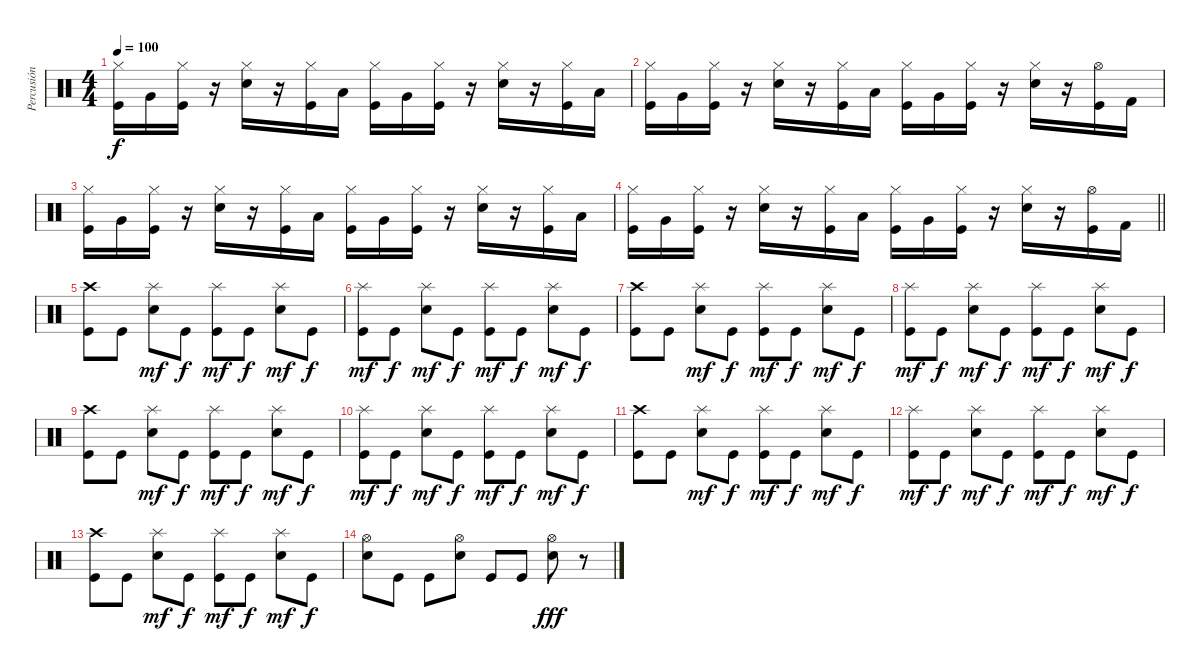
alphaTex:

\track ("Percusión" "Percusión") {instrument percussion}
\staff {score}
\articulation defaults
\ts (4 4)
\tempo 100
\clef neutral
\ks c
("Hi-Hat (closed)" "Kick (hit)").16{dy f} "Very Low Tom (hit)".16 ("Hi-Hat (closed)" "Kick (hit)").16 r.16 ("Hi-Hat (closed)" "Electric Snare (hit)").16 r.16 ("Hi-Hat (closed)" "Kick (hit)").16 "Low Tom (hit)".16 ("Hi-Hat (closed)" "Kick (hit)").16 "Very Low Tom (hit)".16 ("Hi-Hat (closed)" "Kick (hit)").16 r.16 ("Hi-Hat (closed)" "Electric Snare (hit)").16 r.16 ("Hi-Hat (closed)" "Kick (hit)").16 "Low Tom (hit)".16 |
("Hi-Hat (closed)" "Kick (hit)").16 "Very Low Tom (hit)".16 ("Hi-Hat (closed)" "Kick (hit)").16 r.16 ("Hi-Hat (closed)" "Electric Snare (hit)").16 r.16 ("Hi-Hat (closed)" "Kick (hit)").16 "Low Tom (hit)".16 ("Hi-Hat (closed)" "Kick (hit)").16 "Very Low Tom (hit)".16 ("Hi-Hat (closed)" "Kick (hit)").16 r.16 ("Hi-Hat (closed)" "Electric Snare (hit)").16 r.16 ("Hi-Hat (open)" "Kick (hit)").16 "Kick (hit) 2".16 |
("Hi-Hat (closed)" "Kick (hit)").16 "Very Low Tom (hit)".16 ("Hi-Hat (closed)" "Kick (hit)").16 r.16 ("Hi-Hat (closed)" "Electric Snare (hit)").16 r.16 ("Hi-Hat (closed)" "Kick (hit)").16 "Low Tom (hit)".16 ("Hi-Hat (closed)" "Kick (hit)").16 "Very Low Tom (hit)".16 ("Hi-Hat (closed)" "Kick (hit)").16 r.16 ("Hi-Hat (closed)" "Electric Snare (hit)").16 r.16 ("Hi-Hat (closed)" "Kick (hit)").16 "Low Tom (hit)".16 |
\barLineRight lightlight
("Hi-Hat (closed)" "Kick (hit)").16 "Very Low Tom (hit)".16 ("Hi-Hat (closed)" "Kick (hit)").16 r.16 ("Hi-Hat (closed)" "Electric Snare (hit)").16 r.16 ("Hi-Hat (closed)" "Kick (hit)").16 "Low Tom (hit)".16 ("Hi-Hat (closed)" "Kick (hit)").16 "Very Low Tom (hit)".16 ("Hi-Hat (closed)" "Kick (hit)").16 r.16 ("Hi-Hat (closed)" "Electric Snare (hit)").16 r.16 ("Hi-Hat (open)" "Kick (hit)").16 "Kick (hit) 2".16 |
("Crash high (hit)" "Kick (hit)").8 "Kick (hit)".8 ("Splash (hit)" "Electric Snare (hit)").8{dy mf} "Kick (hit)".8{dy f} ("Splash (hit)" "Kick (hit)").8{dy mf} "Kick (hit)".8{dy f} ("Splash (hit)" "Electric Snare (hit)").8{dy mf} "Kick (hit)".8{dy f} |
("Splash (hit)" "Kick (hit)").8{dy mf} "Kick (hit)".8{dy f} ("Splash (hit)" "Electric Snare (hit)").8{dy mf} "Kick (hit)".8{dy f} ("Splash (hit)" "Kick (hit)").8{dy mf} "Kick (hit)".8{dy f} ("Splash (hit)" "Electric Snare (hit)").8{dy mf} "Kick (hit)".8{dy f} |
("Crash high (hit)" "Kick (hit)").8 "Kick (hit)".8 ("Splash (hit)" "Electric Snare (hit)").8{dy mf} "Kick (hit)".8{dy f} ("Splash (hit)" "Kick (hit)").8{dy mf} "Kick (hit)".8{dy f} ("Splash (hit)" "Electric Snare (hit)").8{dy mf} "Kick (hit)".8{dy f} |
("Splash (hit)" "Kick (hit)").8{dy mf} "Kick (hit)".8{dy f} ("Splash (hit)" "Electric Snare (hit)").8{dy mf} "Kick (hit)".8{dy f} ("Splash (hit)" "Kick (hit)").8{dy mf} "Kick (hit)".8{dy f} ("Splash (hit)" "Electric Snare (hit)").8{dy mf} "Kick (hit)".8{dy f} |
("Crash high (hit)" "Kick (hit)").8 "Kick (hit)".8 ("Splash (hit)" "Electric Snare (hit)").8{dy mf} "Kick (hit)".8{dy f} ("Splash (hit)" "Kick (hit)").8{dy mf} "Kick (hit)".8{dy f} ("Splash (hit)" "Electric Snare (hit)").8{dy mf} "Kick (hit)".8{dy f} |
("Splash (hit)" "Kick (hit)").8{dy mf} "Kick (hit)".8{dy f} ("Splash (hit)" "Electric Snare (hit)").8{dy mf} "Kick (hit)".8{dy f} ("Splash (hit)" "Kick (hit)").8{dy mf} "Kick (hit)".8{dy f} ("Splash (hit)" "Electric Snare (hit)").8{dy mf} "Kick (hit)".8{dy f} |
("Crash high (hit)" "Kick (hit)").8 "Kick (hit)".8 ("Splash (hit)" "Electric Snare (hit)").8{dy mf} "Kick (hit)".8{dy f} ("Splash (hit)" "Kick (hit)").8{dy mf} "Kick (hit)".8{dy f} ("Splash (hit)" "Electric Snare (hit)").8{dy mf} "Kick (hit)".8{dy f} |
("Splash (hit)" "Kick (hit)").8{dy mf} "Kick (hit)".8{dy f} ("Splash (hit)" "Electric Snare (hit)").8{dy mf} "Kick (hit)".8{dy f} ("Splash (hit)" "Kick (hit)").8{dy mf} "Kick (hit)".8{dy f} ("Splash (hit)" "Electric Snare (hit)").8{dy mf} "Kick (hit)".8{dy f} |
("Crash high (hit)" "Kick (hit)").8 "Kick (hit)".8 ("Splash (hit)" "Electric Snare (hit)").8{dy mf} "Kick (hit)".8{dy f} ("Splash (hit)" "Kick (hit)").8{dy mf} "Kick (hit)".8{dy f} ("Splash (hit)" "Electric Snare (hit)").8{dy mf} "Kick (hit)".8{dy f} |
("Hi-Hat (open)" "Electric Snare (hit)").8 "Kick (hit)".8 "Kick (hit)".8 ("Hi-Hat (open)" "Electric Snare (hit)").8 "Kick (hit)".8 "Kick (hit)".8 ("Hi-Hat (open)" "Electric Snare (hit)").8{dy fff} r.8
